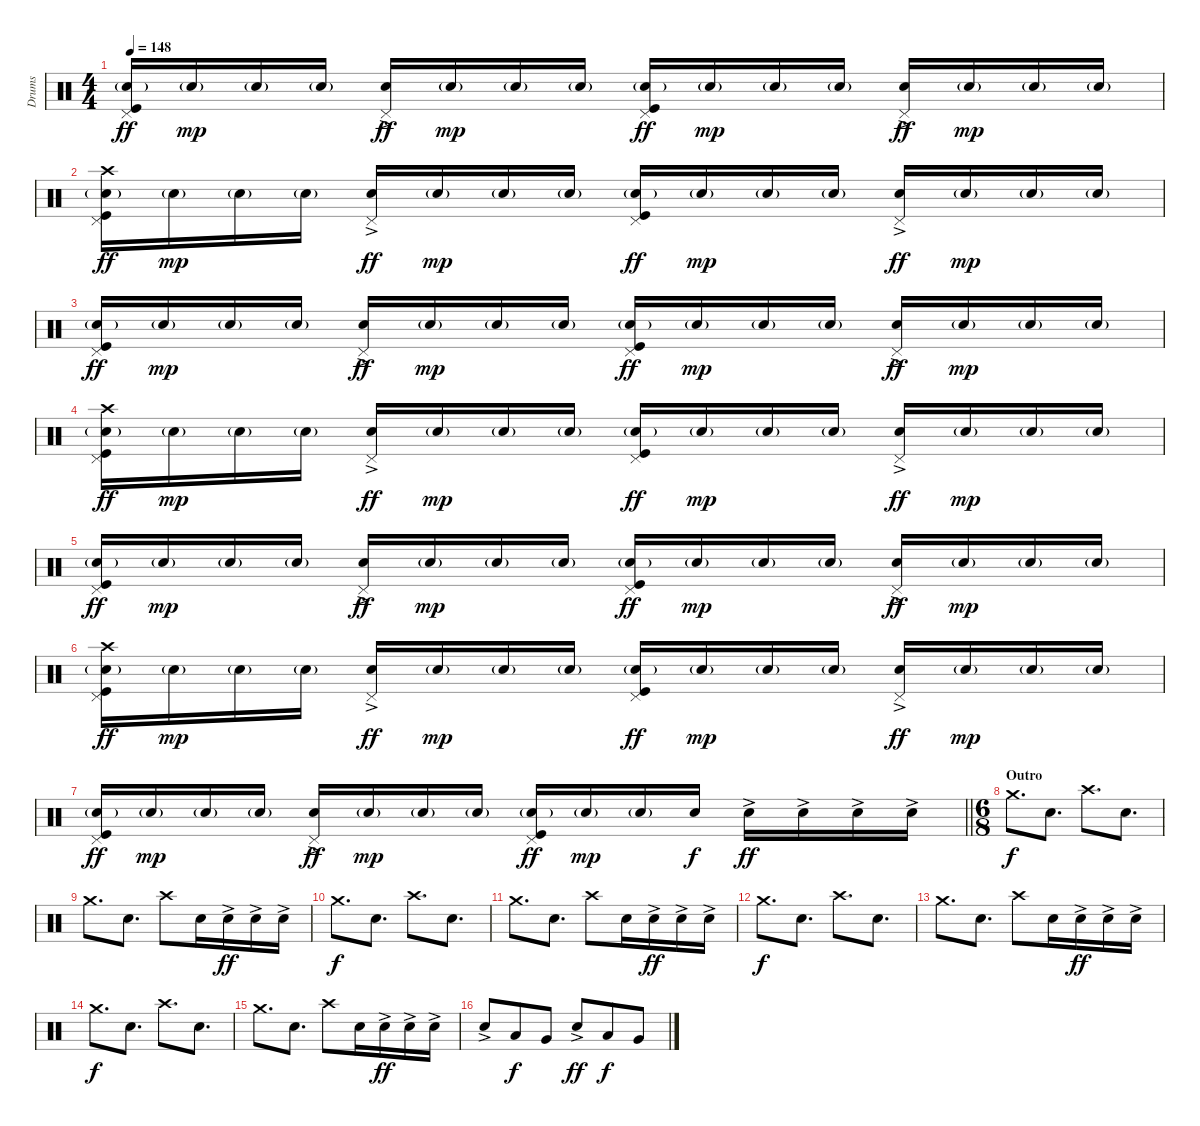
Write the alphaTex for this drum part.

\track ("Drums" "Drums") {instrument percussion}
\staff {score}
\articulation defaults
\ts (4 4)
\tempo 148
\clef neutral
\ks c
("Pedal Hi-Hat (hit)" "Snare (hit) 2"{g} "Kick (hit)").16{dy ff} "Snare (hit) 2"{g}.16{dy mp} "Snare (hit) 2"{g}.16 "Snare (hit) 2"{g}.16 ("Pedal Hi-Hat (hit)" "Electric Snare (hit)"{ac}).16{dy ff} "Snare (hit) 2"{g}.16{dy mp} "Snare (hit) 2"{g}.16 "Snare (hit) 2"{g}.16 ("Pedal Hi-Hat (hit)" "Snare (hit) 2"{g} "Kick (hit)").16{dy ff} "Snare (hit) 2"{g}.16{dy mp} "Snare (hit) 2"{g}.16 "Snare (hit) 2"{g}.16 ("Pedal Hi-Hat (hit)" "Electric Snare (hit)"{ac}).16{dy ff} "Snare (hit) 2"{g}.16{dy mp} "Snare (hit) 2"{g}.16 "Snare (hit) 2"{g}.16 |
("Crash high (hit)" "Pedal Hi-Hat (hit)" "Snare (hit) 2"{g} "Kick (hit)").16{dy ff} "Snare (hit) 2"{g}.16{dy mp} "Snare (hit) 2"{g}.16 "Snare (hit) 2"{g}.16 ("Pedal Hi-Hat (hit)" "Electric Snare (hit)"{ac}).16{dy ff} "Snare (hit) 2"{g}.16{dy mp} "Snare (hit) 2"{g}.16 "Snare (hit) 2"{g}.16 ("Pedal Hi-Hat (hit)" "Snare (hit) 2"{g} "Kick (hit)").16{dy ff} "Snare (hit) 2"{g}.16{dy mp} "Snare (hit) 2"{g}.16 "Snare (hit) 2"{g}.16 ("Pedal Hi-Hat (hit)" "Electric Snare (hit)"{ac}).16{dy ff} "Snare (hit) 2"{g}.16{dy mp} "Snare (hit) 2"{g}.16 "Snare (hit) 2"{g}.16 |
("Pedal Hi-Hat (hit)" "Snare (hit) 2"{g} "Kick (hit)").16{dy ff} "Snare (hit) 2"{g}.16{dy mp} "Snare (hit) 2"{g}.16 "Snare (hit) 2"{g}.16 ("Pedal Hi-Hat (hit)" "Electric Snare (hit)"{ac}).16{dy ff} "Snare (hit) 2"{g}.16{dy mp} "Snare (hit) 2"{g}.16 "Snare (hit) 2"{g}.16 ("Pedal Hi-Hat (hit)" "Snare (hit) 2"{g} "Kick (hit)").16{dy ff} "Snare (hit) 2"{g}.16{dy mp} "Snare (hit) 2"{g}.16 "Snare (hit) 2"{g}.16 ("Pedal Hi-Hat (hit)" "Electric Snare (hit)"{ac}).16{dy ff} "Snare (hit) 2"{g}.16{dy mp} "Snare (hit) 2"{g}.16 "Snare (hit) 2"{g}.16 |
("Crash high (hit)" "Pedal Hi-Hat (hit)" "Snare (hit) 2"{g} "Kick (hit)").16{dy ff} "Snare (hit) 2"{g}.16{dy mp} "Snare (hit) 2"{g}.16 "Snare (hit) 2"{g}.16 ("Pedal Hi-Hat (hit)" "Electric Snare (hit)"{ac}).16{dy ff} "Snare (hit) 2"{g}.16{dy mp} "Snare (hit) 2"{g}.16 "Snare (hit) 2"{g}.16 ("Pedal Hi-Hat (hit)" "Snare (hit) 2"{g} "Kick (hit)").16{dy ff} "Snare (hit) 2"{g}.16{dy mp} "Snare (hit) 2"{g}.16 "Snare (hit) 2"{g}.16 ("Pedal Hi-Hat (hit)" "Electric Snare (hit)"{ac}).16{dy ff} "Snare (hit) 2"{g}.16{dy mp} "Snare (hit) 2"{g}.16 "Snare (hit) 2"{g}.16 |
("Pedal Hi-Hat (hit)" "Snare (hit) 2"{g} "Kick (hit)").16{dy ff} "Snare (hit) 2"{g}.16{dy mp} "Snare (hit) 2"{g}.16 "Snare (hit) 2"{g}.16 ("Pedal Hi-Hat (hit)" "Electric Snare (hit)"{ac}).16{dy ff} "Snare (hit) 2"{g}.16{dy mp} "Snare (hit) 2"{g}.16 "Snare (hit) 2"{g}.16 ("Pedal Hi-Hat (hit)" "Snare (hit) 2"{g} "Kick (hit)").16{dy ff} "Snare (hit) 2"{g}.16{dy mp} "Snare (hit) 2"{g}.16 "Snare (hit) 2"{g}.16 ("Pedal Hi-Hat (hit)" "Electric Snare (hit)"{ac}).16{dy ff} "Snare (hit) 2"{g}.16{dy mp} "Snare (hit) 2"{g}.16 "Snare (hit) 2"{g}.16 |
("Crash high (hit)" "Pedal Hi-Hat (hit)" "Snare (hit) 2"{g} "Kick (hit)").16{dy ff} "Snare (hit) 2"{g}.16{dy mp} "Snare (hit) 2"{g}.16 "Snare (hit) 2"{g}.16 ("Pedal Hi-Hat (hit)" "Electric Snare (hit)"{ac}).16{dy ff} "Snare (hit) 2"{g}.16{dy mp} "Snare (hit) 2"{g}.16 "Snare (hit) 2"{g}.16 ("Pedal Hi-Hat (hit)" "Snare (hit) 2"{g} "Kick (hit)").16{dy ff} "Snare (hit) 2"{g}.16{dy mp} "Snare (hit) 2"{g}.16 "Snare (hit) 2"{g}.16 ("Pedal Hi-Hat (hit)" "Electric Snare (hit)"{ac}).16{dy ff} "Snare (hit) 2"{g}.16{dy mp} "Snare (hit) 2"{g}.16 "Snare (hit) 2"{g}.16 |
\barLineRight lightlight
("Pedal Hi-Hat (hit)" "Snare (hit) 2"{g} "Kick (hit)").16{dy ff} "Snare (hit) 2"{g}.16{dy mp} "Snare (hit) 2"{g}.16 "Snare (hit) 2"{g}.16 ("Pedal Hi-Hat (hit)" "Electric Snare (hit)"{ac}).16{dy ff} "Snare (hit) 2"{g}.16{dy mp} "Snare (hit) 2"{g}.16 "Snare (hit) 2"{g}.16 ("Pedal Hi-Hat (hit)" "Snare (hit) 2"{g} "Kick (hit)").16{dy ff} "Snare (hit) 2"{g}.16{dy mp} "Snare (hit) 2"{g}.16 "Electric Snare (hit)".16{dy f} "Electric Snare (hit)"{ac}.16{dy ff} "Electric Snare (hit)"{ac}.16 "Electric Snare (hit)"{ac}.16 "Electric Snare (hit)"{ac}.16 |
\ts (6 8)
\section ("" "Outro")
"Crash medium (hit)".8{d dy f} "Electric Snare (hit)".8{d} "Crash high (hit)".8{d} "Electric Snare (hit)".8{d} |
"Crash medium (hit)".8{d} "Electric Snare (hit)".8{d} "Crash high (hit)".8 "Electric Snare (hit)".16 "Electric Snare (hit)"{ac}.16{dy ff} "Electric Snare (hit)"{ac}.16 "Electric Snare (hit)"{ac}.16 |
"Crash medium (hit)".8{d dy f} "Electric Snare (hit)".8{d} "Crash high (hit)".8{d} "Electric Snare (hit)".8{d} |
"Crash medium (hit)".8{d} "Electric Snare (hit)".8{d} "Crash high (hit)".8 "Electric Snare (hit)".16 "Electric Snare (hit)"{ac}.16{dy ff} "Electric Snare (hit)"{ac}.16 "Electric Snare (hit)"{ac}.16 |
"Crash medium (hit)".8{d dy f} "Electric Snare (hit)".8{d} "Crash high (hit)".8{d} "Electric Snare (hit)".8{d} |
"Crash medium (hit)".8{d} "Electric Snare (hit)".8{d} "Crash high (hit)".8 "Electric Snare (hit)".16 "Electric Snare (hit)"{ac}.16{dy ff} "Electric Snare (hit)"{ac}.16 "Electric Snare (hit)"{ac}.16 |
"Crash medium (hit)".8{d dy f} "Electric Snare (hit)".8{d} "Crash high (hit)".8{d} "Electric Snare (hit)".8{d} |
"Crash medium (hit)".8{d} "Electric Snare (hit)".8{d} "Crash high (hit)".8 "Electric Snare (hit)".16 "Electric Snare (hit)"{ac}.16{dy ff} "Electric Snare (hit)"{ac}.16 "Electric Snare (hit)"{ac}.16 |
"Electric Snare (hit)"{ac}.8 "Low Tom (hit)".8{dy f} "Very Low Tom (hit)".8 "Electric Snare (hit)"{ac}.8{dy ff} "Low Tom (hit)".8{dy f} "Very Low Tom (hit)".8
